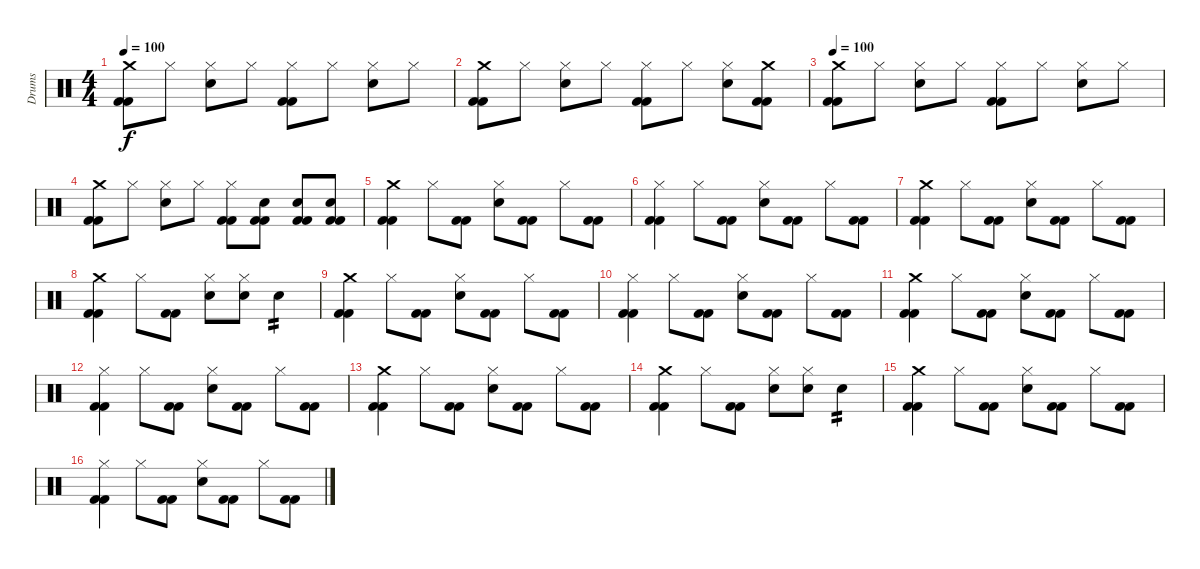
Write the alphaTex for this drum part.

\track ("Drums" "Drums") {instrument percussion}
\staff {score}
\articulation defaults
\ts (4 4)
\tempo 100
\clef neutral
\ks c
("Crash medium (hit)" "Kick (hit) 2" "Kick (hit) 2").8{dy f} "Hi-Hat (closed)".8 ("Electric Snare (hit)" "Hi-Hat (closed)").8 "Hi-Hat (closed)".8 ("Hi-Hat (closed)" "Kick (hit) 2" "Kick (hit) 2").8 "Hi-Hat (closed)".8 ("Hi-Hat (closed)" "Electric Snare (hit)").8 "Hi-Hat (closed)".8 |
("Crash medium (hit)" "Kick (hit) 2" "Kick (hit) 2").8 "Hi-Hat (closed)".8 ("Electric Snare (hit)" "Hi-Hat (closed)").8 "Hi-Hat (closed)".8 ("Hi-Hat (closed)" "Kick (hit) 2" "Kick (hit) 2").8 "Hi-Hat (closed)".8 ("Hi-Hat (closed)" "Electric Snare (hit)").8 ("Kick (hit) 2" "Kick (hit) 2" "Crash medium (hit)").8 |
\tempo 100
("Crash medium (hit)" "Kick (hit) 2" "Kick (hit) 2").8 "Hi-Hat (closed)".8 ("Electric Snare (hit)" "Hi-Hat (closed)").8 "Hi-Hat (closed)".8 ("Hi-Hat (closed)" "Kick (hit) 2" "Kick (hit) 2").8 "Hi-Hat (closed)".8 ("Hi-Hat (closed)" "Electric Snare (hit)").8 "Hi-Hat (closed)".8 |
("Crash medium (hit)" "Kick (hit) 2" "Kick (hit) 2").8 "Hi-Hat (closed)".8 ("Electric Snare (hit)" "Hi-Hat (closed)").8 "Hi-Hat (closed)".8 ("Hi-Hat (closed)" "Kick (hit) 2" "Kick (hit) 2").8 ("Kick (hit) 2" "Kick (hit) 2" "Electric Snare (hit)").8 ("Electric Snare (hit)" "Kick (hit) 2" "Kick (hit) 2").8 ("Kick (hit) 2" "Kick (hit) 2" "Electric Snare (hit)").8 |
("Kick (hit) 2" "Kick (hit) 2" "Crash medium (hit)").4 "Hi-Hat (closed)".8 ("Kick (hit) 2" "Kick (hit) 2").8 ("Electric Snare (hit)" "Hi-Hat (closed)").8 ("Kick (hit) 2" "Kick (hit) 2").8 "Hi-Hat (closed)".8 ("Kick (hit) 2" "Kick (hit) 2").8 |
("Kick (hit) 2" "Kick (hit) 2" "Hi-Hat (closed)").4 "Hi-Hat (closed)".8 ("Kick (hit) 2" "Kick (hit) 2").8 ("Electric Snare (hit)" "Hi-Hat (closed)").8 ("Kick (hit) 2" "Kick (hit) 2").8 "Hi-Hat (closed)".8 ("Kick (hit) 2" "Kick (hit) 2").8 |
("Kick (hit) 2" "Kick (hit) 2" "Crash medium (hit)").4 "Hi-Hat (closed)".8 ("Kick (hit) 2" "Kick (hit) 2").8 ("Electric Snare (hit)" "Hi-Hat (closed)").8 ("Kick (hit) 2" "Kick (hit) 2").8 "Hi-Hat (closed)".8 ("Kick (hit) 2" "Kick (hit) 2").8 |
("Kick (hit) 2" "Kick (hit) 2" "Crash medium (hit)").4 "Hi-Hat (closed)".8 ("Kick (hit) 2" "Kick (hit) 2").8 ("Electric Snare (hit)" "Hi-Hat (closed)").8 ("Hi-Hat (closed)" "Electric Snare (hit)").8 "Electric Snare (hit)".4{tp 2} |
("Kick (hit) 2" "Kick (hit) 2" "Crash medium (hit)").4 "Hi-Hat (closed)".8 ("Kick (hit) 2" "Kick (hit) 2").8 ("Electric Snare (hit)" "Hi-Hat (closed)").8 ("Kick (hit) 2" "Kick (hit) 2").8 "Hi-Hat (closed)".8 ("Kick (hit) 2" "Kick (hit) 2").8 |
("Kick (hit) 2" "Kick (hit) 2" "Hi-Hat (closed)").4 "Hi-Hat (closed)".8 ("Kick (hit) 2" "Kick (hit) 2").8 ("Electric Snare (hit)" "Hi-Hat (closed)").8 ("Kick (hit) 2" "Kick (hit) 2").8 "Hi-Hat (closed)".8 ("Kick (hit) 2" "Kick (hit) 2").8 |
("Kick (hit) 2" "Kick (hit) 2" "Crash medium (hit)").4 "Hi-Hat (closed)".8 ("Kick (hit) 2" "Kick (hit) 2").8 ("Electric Snare (hit)" "Hi-Hat (closed)").8 ("Kick (hit) 2" "Kick (hit) 2").8 "Hi-Hat (closed)".8 ("Kick (hit) 2" "Kick (hit) 2").8 |
("Kick (hit) 2" "Kick (hit) 2" "Hi-Hat (closed)").4 "Hi-Hat (closed)".8 ("Kick (hit) 2" "Kick (hit) 2").8 ("Electric Snare (hit)" "Hi-Hat (closed)").8 ("Kick (hit) 2" "Kick (hit) 2").8 "Hi-Hat (closed)".8 ("Kick (hit) 2" "Kick (hit) 2").8 |
("Kick (hit) 2" "Kick (hit) 2" "Crash medium (hit)").4 "Hi-Hat (closed)".8 ("Kick (hit) 2" "Kick (hit) 2").8 ("Electric Snare (hit)" "Hi-Hat (closed)").8 ("Kick (hit) 2" "Kick (hit) 2").8 "Hi-Hat (closed)".8 ("Kick (hit) 2" "Kick (hit) 2").8 |
("Kick (hit) 2" "Kick (hit) 2" "Crash medium (hit)").4 "Hi-Hat (closed)".8 ("Kick (hit) 2" "Kick (hit) 2").8 ("Electric Snare (hit)" "Hi-Hat (closed)").8 ("Hi-Hat (closed)" "Electric Snare (hit)").8 "Electric Snare (hit)".4{tp 2} |
("Kick (hit) 2" "Kick (hit) 2" "Crash medium (hit)").4 "Hi-Hat (closed)".8 ("Kick (hit) 2" "Kick (hit) 2").8 ("Electric Snare (hit)" "Hi-Hat (closed)").8 ("Kick (hit) 2" "Kick (hit) 2").8 "Hi-Hat (closed)".8 ("Kick (hit) 2" "Kick (hit) 2").8 |
("Kick (hit) 2" "Kick (hit) 2" "Hi-Hat (closed)").4 "Hi-Hat (closed)".8 ("Kick (hit) 2" "Kick (hit) 2").8 ("Electric Snare (hit)" "Hi-Hat (closed)").8 ("Kick (hit) 2" "Kick (hit) 2").8 "Hi-Hat (closed)".8 ("Kick (hit) 2" "Kick (hit) 2").8
